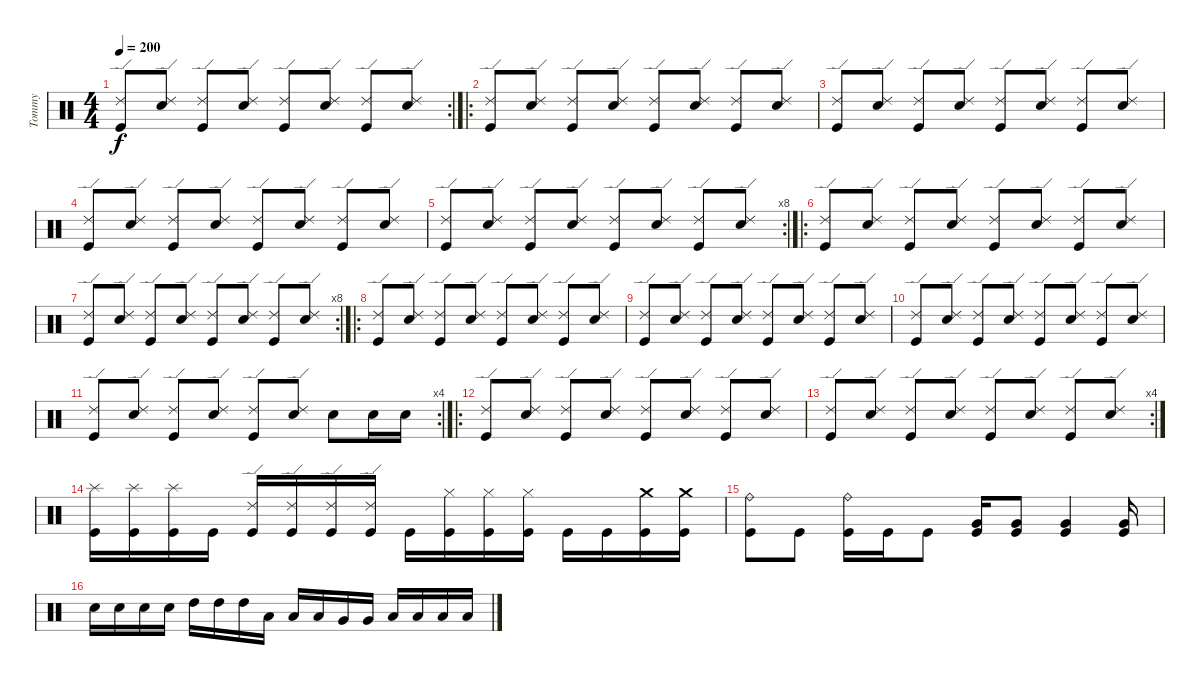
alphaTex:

\track ("Tommy" "Tommy") {instrument percussion}
\staff {score}
\articulation defaults
\rc 2
\ts (4 4)
\tempo 200
\clef neutral
\ks c
("Ride (edge) 2" "Kick (hit)").8{dy f} ("Ride (edge) 2" "Snare (hit) 2").8 ("Ride (edge) 2" "Kick (hit)").8 ("Ride (edge) 2" "Snare (hit) 2").8 ("Ride (edge) 2" "Kick (hit)").8 ("Ride (edge) 2" "Snare (hit) 2").8 ("Ride (edge) 2" "Kick (hit)").8 ("Ride (edge) 2" "Snare (hit) 2").8 |
\ro
("Ride (edge) 2" "Kick (hit)").8 ("Ride (edge) 2" "Snare (hit) 2").8 ("Ride (edge) 2" "Kick (hit)").8 ("Ride (edge) 2" "Snare (hit) 2").8 ("Ride (edge) 2" "Kick (hit)").8 ("Ride (edge) 2" "Snare (hit) 2").8 ("Ride (edge) 2" "Kick (hit)").8 ("Ride (edge) 2" "Snare (hit) 2").8 |
("Ride (edge) 2" "Kick (hit)").8 ("Ride (edge) 2" "Snare (hit) 2").8 ("Ride (edge) 2" "Kick (hit)").8 ("Ride (edge) 2" "Snare (hit) 2").8 ("Ride (edge) 2" "Kick (hit)").8 ("Ride (edge) 2" "Snare (hit) 2").8 ("Ride (edge) 2" "Kick (hit)").8 ("Ride (edge) 2" "Snare (hit) 2").8 |
("Ride (edge) 2" "Kick (hit)").8 ("Ride (edge) 2" "Snare (hit) 2").8 ("Ride (edge) 2" "Kick (hit)").8 ("Ride (edge) 2" "Snare (hit) 2").8 ("Ride (edge) 2" "Kick (hit)").8 ("Ride (edge) 2" "Snare (hit) 2").8 ("Ride (edge) 2" "Kick (hit)").8 ("Ride (edge) 2" "Snare (hit) 2").8 |
\rc 8
("Ride (edge) 2" "Kick (hit)").8 ("Ride (edge) 2" "Snare (hit) 2").8 ("Ride (edge) 2" "Kick (hit)").8 ("Ride (edge) 2" "Snare (hit) 2").8 ("Ride (edge) 2" "Kick (hit)").8 ("Ride (edge) 2" "Snare (hit) 2").8 ("Ride (edge) 2" "Kick (hit)").8 ("Ride (edge) 2" "Snare (hit) 2").8 |
\ro
("Ride (edge) 2" "Kick (hit)").8 ("Ride (edge) 2" "Snare (hit) 2").8 ("Ride (edge) 2" "Kick (hit)").8 ("Ride (edge) 2" "Snare (hit) 2").8 ("Ride (edge) 2" "Kick (hit)").8 ("Ride (edge) 2" "Snare (hit) 2").8 ("Ride (edge) 2" "Kick (hit)").8 ("Ride (edge) 2" "Snare (hit) 2").8 |
\rc 8
("Ride (edge) 2" "Kick (hit)").8 ("Ride (edge) 2" "Snare (hit) 2").8 ("Ride (edge) 2" "Kick (hit)").8 ("Ride (edge) 2" "Snare (hit) 2").8 ("Ride (edge) 2" "Kick (hit)").8 ("Ride (edge) 2" "Snare (hit) 2").8 ("Ride (edge) 2" "Kick (hit)").8 ("Ride (edge) 2" "Snare (hit) 2").8 |
\ro
("Ride (edge) 2" "Kick (hit)").8 ("Ride (edge) 2" "Snare (hit) 2").8 ("Ride (edge) 2" "Kick (hit)").8 ("Ride (edge) 2" "Snare (hit) 2").8 ("Ride (edge) 2" "Kick (hit)").8 ("Ride (edge) 2" "Snare (hit) 2").8 ("Ride (edge) 2" "Kick (hit)").8 ("Ride (edge) 2" "Snare (hit) 2").8 |
("Ride (edge) 2" "Kick (hit)").8 ("Ride (edge) 2" "Snare (hit) 2").8 ("Ride (edge) 2" "Kick (hit)").8 ("Ride (edge) 2" "Snare (hit) 2").8 ("Ride (edge) 2" "Kick (hit)").8 ("Ride (edge) 2" "Snare (hit) 2").8 ("Ride (edge) 2" "Kick (hit)").8 ("Ride (edge) 2" "Snare (hit) 2").8 |
("Ride (edge) 2" "Kick (hit)").8 ("Ride (edge) 2" "Snare (hit) 2").8 ("Ride (edge) 2" "Kick (hit)").8 ("Ride (edge) 2" "Snare (hit) 2").8 ("Ride (edge) 2" "Kick (hit)").8 ("Ride (edge) 2" "Snare (hit) 2").8 ("Ride (edge) 2" "Kick (hit)").8 ("Ride (edge) 2" "Snare (hit) 2").8 |
\rc 4
("Ride (edge) 2" "Kick (hit)").8 ("Ride (edge) 2" "Snare (hit) 2").8 ("Ride (edge) 2" "Kick (hit)").8 ("Ride (edge) 2" "Snare (hit) 2").8 ("Ride (edge) 2" "Kick (hit)").8 ("Ride (edge) 2" "Snare (hit) 2").8 "Snare (hit) 2".8 "Snare (hit) 2".16 "Snare (hit) 2".16 |
\ro
("Ride (edge) 2" "Kick (hit)").8 ("Ride (edge) 2" "Snare (hit) 2").8 ("Ride (edge) 2" "Kick (hit)").8 ("Ride (edge) 2" "Snare (hit) 2").8 ("Ride (edge) 2" "Kick (hit)").8 ("Ride (edge) 2" "Snare (hit) 2").8 ("Ride (edge) 2" "Kick (hit)").8 ("Ride (edge) 2" "Snare (hit) 2").8 |
\rc 4
("Ride (edge) 2" "Kick (hit)").8 ("Ride (edge) 2" "Snare (hit) 2").8 ("Ride (edge) 2" "Kick (hit)").8 ("Ride (edge) 2" "Snare (hit) 2").8 ("Ride (edge) 2" "Kick (hit)").8 ("Ride (edge) 2" "Snare (hit) 2").8 ("Ride (edge) 2" "Kick (hit)").8 ("Ride (edge) 2" "Snare (hit) 2").8 |
("Splash (hit)" "Kick (hit)").16 ("Splash (hit)" "Kick (hit)").16 ("Splash (hit)" "Kick (hit)").16 "Kick (hit)".16 ("Ride (edge) 2" "Kick (hit)").16 ("Ride (edge) 2" "Kick (hit)").16 ("Ride (edge) 2" "Kick (hit)").16 ("Ride (edge) 2" "Kick (hit)").16 "Kick (hit)".16 ("Hi-Hat (closed)" "Kick (hit)").16 ("Hi-Hat (closed)" "Kick (hit)").16 ("Hi-Hat (closed)" "Kick (hit)").16 "Kick (hit)".16 "Kick (hit)".16 ("Crash medium (hit)" "Kick (hit)").16 ("Crash medium (hit)" "Kick (hit)").16 |
("Ride (bell)" "Kick (hit)").8 "Kick (hit)".8 ("Ride (bell)" "Kick (hit)").16 "Kick (hit)".16 "Kick (hit)".8 ("Very Low Tom (hit)" "Kick (hit)").16 ("Very Low Tom (hit)" "Kick (hit)").8 ("Very Low Tom (hit)" "Kick (hit)").4 ("Very Low Tom (hit)" "Kick (hit)").16 |
"Snare (hit) 2".16 "Snare (hit) 2".16 "Snare (hit) 2".16 "Snare (hit) 2".16 "High Tom (hit)".16 "High Tom (hit)".16 "High Tom (hit)".16 "Low Tom (hit)".16 "Low Tom (hit)".16 "Low Tom (hit)".16 "Very Low Tom (hit)".16 "Very Low Tom (hit)".16 "Low Floor Tom (hit)".16 "Low Floor Tom (hit)".16 "Low Floor Tom (hit)".16 "Low Floor Tom (hit)".16
